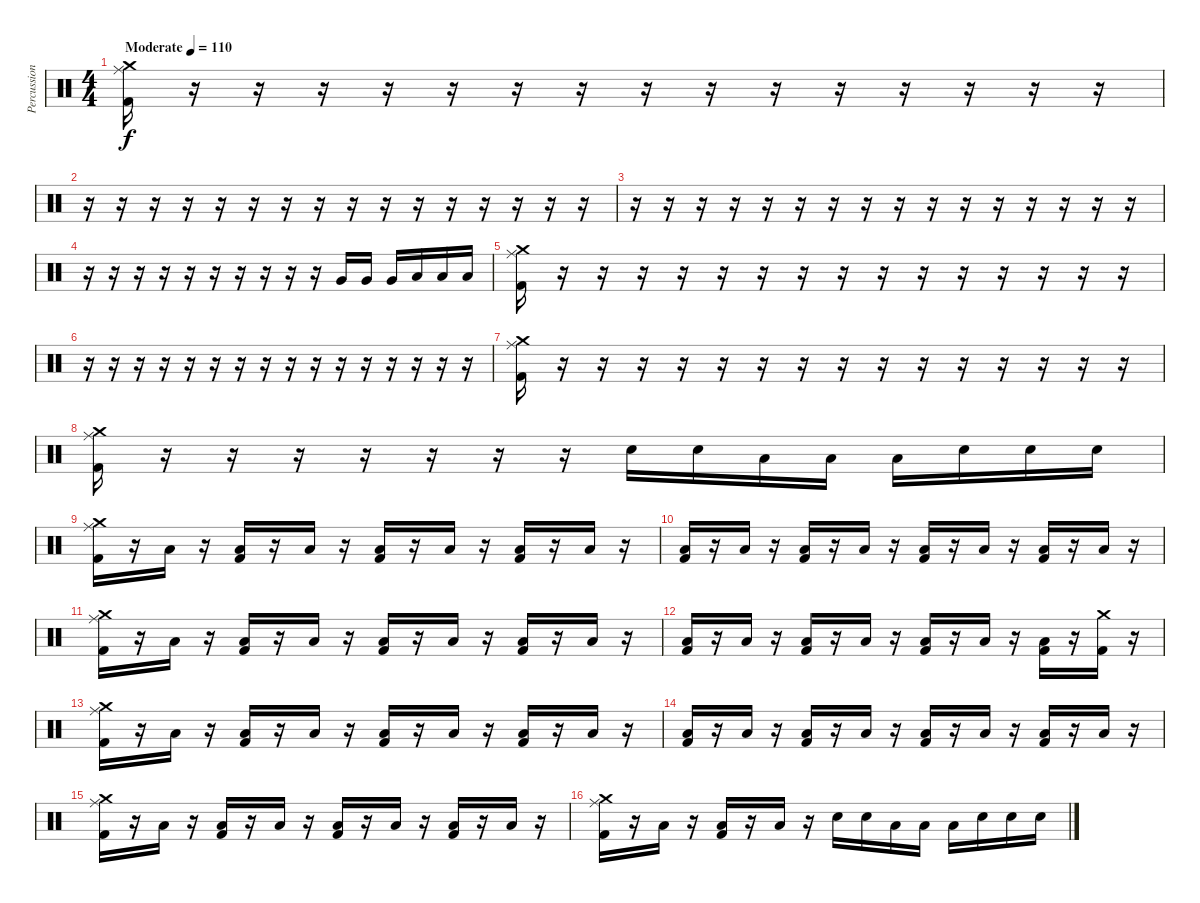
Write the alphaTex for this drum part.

\track ("Percussion" "Percussion") {instrument percussion}
\staff {score}
\articulation defaults
\ts (4 4)
\tempo (110 "Moderate")
\clef neutral
\ks c
("Crash medium (hit)" "Ride (middle)" "Kick (hit) 2").16{dy f} r.16 r.16 r.16 r.16 r.16 r.16 r.16 r.16 r.16 r.16 r.16 r.16 r.16 r.16 r.16 |
r.16 r.16 r.16 r.16 r.16 r.16 r.16 r.16 r.16 r.16 r.16 r.16 r.16 r.16 r.16 r.16 |
r.16 r.16 r.16 r.16 r.16 r.16 r.16 r.16 r.16 r.16 r.16 r.16 r.16 r.16 r.16 r.16 |
r.16 r.16 r.16 r.16 r.16 r.16 r.16 r.16 r.16 r.16 "Very Low Tom (hit)".16 "Very Low Tom (hit)".16 "Very Low Tom (hit)".16 "Low Floor Tom (hit)".16 "Low Floor Tom (hit)".16 "Low Floor Tom (hit)".16 |
("Ride (middle)" "Crash medium (hit)" "Kick (hit) 2").16 r.16 r.16 r.16 r.16 r.16 r.16 r.16 r.16 r.16 r.16 r.16 r.16 r.16 r.16 r.16 |
r.16 r.16 r.16 r.16 r.16 r.16 r.16 r.16 r.16 r.16 r.16 r.16 r.16 r.16 r.16 r.16 |
("Ride (middle)" "Crash medium (hit)" "Kick (hit) 2").16 r.16 r.16 r.16 r.16 r.16 r.16 r.16 r.16 r.16 r.16 r.16 r.16 r.16 r.16 r.16 |
("Ride (middle)" "Crash medium (hit)" "Kick (hit) 2").16 r.16 r.16 r.16 r.16 r.16 r.16 r.16 "Electric Snare (hit)".16 "Electric Snare (hit)".16 "Low Floor Tom (hit)".16 "Low Floor Tom (hit)".16 "Low Floor Tom (hit)".16 "Electric Snare (hit)".16 "Electric Snare (hit)".16 "Electric Snare (hit)".16 |
("Ride (middle)" "Crash medium (hit)" "Kick (hit) 2").16 r.16 "Low Floor Tom (hit)".16 r.16 ("Low Floor Tom (hit)" "Kick (hit) 2").16 r.16 "Low Floor Tom (hit)".16 r.16 ("Low Floor Tom (hit)" "Kick (hit) 2").16 r.16 "Low Floor Tom (hit)".16 r.16 ("Low Floor Tom (hit)" "Kick (hit) 2").16 r.16 "Low Floor Tom (hit)".16 r.16 |
("Low Floor Tom (hit)" "Kick (hit) 2").16 r.16 "Low Floor Tom (hit)".16 r.16 ("Low Floor Tom (hit)" "Kick (hit) 2").16 r.16 "Low Floor Tom (hit)".16 r.16 ("Low Floor Tom (hit)" "Kick (hit) 2").16 r.16 "Low Floor Tom (hit)".16 r.16 ("Low Floor Tom (hit)" "Kick (hit) 2").16 r.16 "Low Floor Tom (hit)".16 r.16 |
("Ride (middle)" "Crash medium (hit)" "Kick (hit) 2").16 r.16 "Low Floor Tom (hit)".16 r.16 ("Low Floor Tom (hit)" "Kick (hit) 2").16 r.16 "Low Floor Tom (hit)".16 r.16 ("Low Floor Tom (hit)" "Kick (hit) 2").16 r.16 "Low Floor Tom (hit)".16 r.16 ("Low Floor Tom (hit)" "Kick (hit) 2").16 r.16 "Low Floor Tom (hit)".16 r.16 |
("Low Floor Tom (hit)" "Kick (hit) 2").16 r.16 "Low Floor Tom (hit)".16 r.16 ("Low Floor Tom (hit)" "Kick (hit) 2").16 r.16 "Low Floor Tom (hit)".16 r.16 ("Low Floor Tom (hit)" "Kick (hit) 2").16 r.16 "Low Floor Tom (hit)".16 r.16 ("Low Floor Tom (hit)" "Kick (hit) 2").16 r.16 ("Crash medium (hit)" "Kick (hit) 2").16 r.16 |
("Ride (middle)" "Crash medium (hit)" "Kick (hit) 2").16 r.16 "Low Floor Tom (hit)".16 r.16 ("Low Floor Tom (hit)" "Kick (hit) 2").16 r.16 "Low Floor Tom (hit)".16 r.16 ("Low Floor Tom (hit)" "Kick (hit) 2").16 r.16 "Low Floor Tom (hit)".16 r.16 ("Low Floor Tom (hit)" "Kick (hit) 2").16 r.16 "Low Floor Tom (hit)".16 r.16 |
("Low Floor Tom (hit)" "Kick (hit) 2").16 r.16 "Low Floor Tom (hit)".16 r.16 ("Low Floor Tom (hit)" "Kick (hit) 2").16 r.16 "Low Floor Tom (hit)".16 r.16 ("Low Floor Tom (hit)" "Kick (hit) 2").16 r.16 "Low Floor Tom (hit)".16 r.16 ("Low Floor Tom (hit)" "Kick (hit) 2").16 r.16 "Low Floor Tom (hit)".16 r.16 |
("Ride (middle)" "Crash medium (hit)" "Kick (hit) 2").16 r.16 "Low Floor Tom (hit)".16 r.16 ("Low Floor Tom (hit)" "Kick (hit) 2").16 r.16 "Low Floor Tom (hit)".16 r.16 ("Low Floor Tom (hit)" "Kick (hit) 2").16 r.16 "Low Floor Tom (hit)".16 r.16 ("Low Floor Tom (hit)" "Kick (hit) 2").16 r.16 "Low Floor Tom (hit)".16 r.16 |
("Ride (middle)" "Crash medium (hit)" "Kick (hit) 2").16 r.16 "Low Floor Tom (hit)".16 r.16 ("Low Floor Tom (hit)" "Kick (hit) 2").16 r.16 "Low Floor Tom (hit)".16 r.16 "Electric Snare (hit)".16 "Electric Snare (hit)".16 "Low Floor Tom (hit)".16 "Low Floor Tom (hit)".16 "Low Floor Tom (hit)".16 "Electric Snare (hit)".16 "Electric Snare (hit)".16 "Electric Snare (hit)".16
